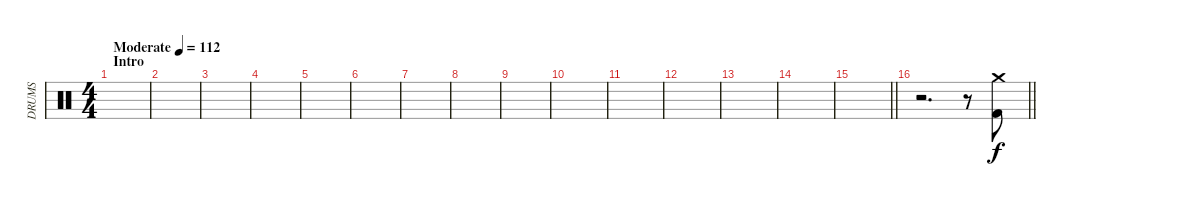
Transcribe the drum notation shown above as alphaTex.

\track ("DRUMS" "DRUMS") {instrument percussion}
\staff {score}
\articulation defaults
\ts (4 4)
\section ("" "Intro")
\tempo (112 "Moderate")
\clef neutral
\ks c
|
|
|
|
|
|
|
|
|
|
|
|
|
|
\barLineRight lightlight
|
\section ("" "")
\barLineRight lightlight
r.2{d} r.8 ("Crash medium (hit)" "Kick (hit) 2").8
